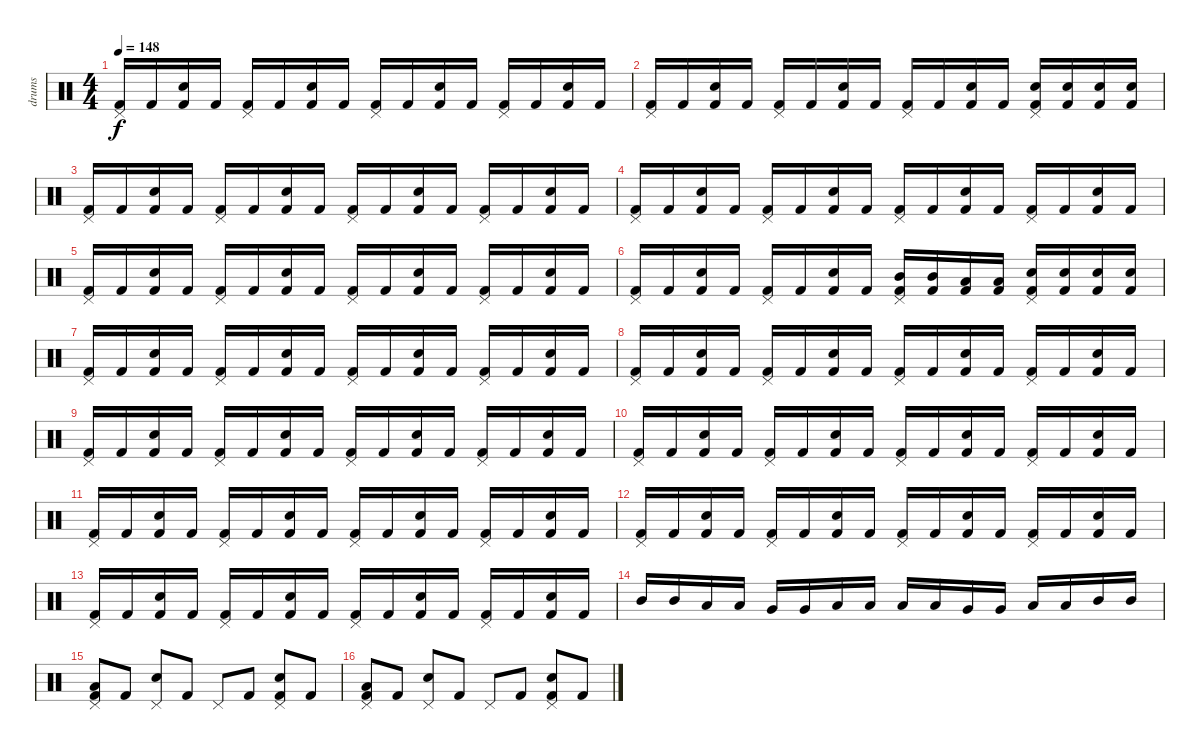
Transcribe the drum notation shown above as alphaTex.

\track ("drums" "drums") {instrument percussion}
\staff {score}
\articulation defaults
\ts (4 4)
\tempo 148
\clef neutral
\ks c
("Pedal Hi-Hat (hit)" "Kick (hit) 2").16{dy f} "Kick (hit) 2".16 ("Electric Snare (hit)" "Kick (hit) 2").16 "Kick (hit) 2".16 ("Pedal Hi-Hat (hit)" "Kick (hit) 2").16 "Kick (hit) 2".16 ("Electric Snare (hit)" "Kick (hit) 2").16 "Kick (hit) 2".16 ("Pedal Hi-Hat (hit)" "Kick (hit) 2").16 "Kick (hit) 2".16 ("Electric Snare (hit)" "Kick (hit) 2").16 "Kick (hit) 2".16 ("Pedal Hi-Hat (hit)" "Kick (hit) 2").16 "Kick (hit) 2".16 ("Electric Snare (hit)" "Kick (hit) 2").16 "Kick (hit) 2".16 |
("Pedal Hi-Hat (hit)" "Kick (hit) 2").16 "Kick (hit) 2".16 ("Electric Snare (hit)" "Kick (hit) 2").16 "Kick (hit) 2".16 ("Pedal Hi-Hat (hit)" "Kick (hit) 2").16 "Kick (hit) 2".16 ("Electric Snare (hit)" "Kick (hit) 2").16 "Kick (hit) 2".16 ("Pedal Hi-Hat (hit)" "Kick (hit) 2").16 "Kick (hit) 2".16 ("Electric Snare (hit)" "Kick (hit) 2").16 "Kick (hit) 2".16 ("Pedal Hi-Hat (hit)" "Electric Snare (hit)" "Kick (hit) 2").16 ("Electric Snare (hit)" "Kick (hit) 2").16 ("Electric Snare (hit)" "Kick (hit) 2").16 ("Electric Snare (hit)" "Kick (hit) 2").16 |
("Pedal Hi-Hat (hit)" "Kick (hit) 2").16 "Kick (hit) 2".16 ("Electric Snare (hit)" "Kick (hit) 2").16 "Kick (hit) 2".16 ("Pedal Hi-Hat (hit)" "Kick (hit) 2").16 "Kick (hit) 2".16 ("Electric Snare (hit)" "Kick (hit) 2").16 "Kick (hit) 2".16 ("Pedal Hi-Hat (hit)" "Kick (hit) 2").16 "Kick (hit) 2".16 ("Electric Snare (hit)" "Kick (hit) 2").16 "Kick (hit) 2".16 ("Pedal Hi-Hat (hit)" "Kick (hit) 2").16 "Kick (hit) 2".16 ("Electric Snare (hit)" "Kick (hit) 2").16 "Kick (hit) 2".16 |
("Pedal Hi-Hat (hit)" "Kick (hit) 2").16 "Kick (hit) 2".16 ("Electric Snare (hit)" "Kick (hit) 2").16 "Kick (hit) 2".16 ("Pedal Hi-Hat (hit)" "Kick (hit) 2").16 "Kick (hit) 2".16 ("Electric Snare (hit)" "Kick (hit) 2").16 "Kick (hit) 2".16 ("Pedal Hi-Hat (hit)" "Kick (hit) 2").16 "Kick (hit) 2".16 ("Electric Snare (hit)" "Kick (hit) 2").16 "Kick (hit) 2".16 ("Pedal Hi-Hat (hit)" "Kick (hit) 2").16 "Kick (hit) 2".16 ("Electric Snare (hit)" "Kick (hit) 2").16 "Kick (hit) 2".16 |
("Pedal Hi-Hat (hit)" "Kick (hit) 2").16 "Kick (hit) 2".16 ("Electric Snare (hit)" "Kick (hit) 2").16 "Kick (hit) 2".16 ("Pedal Hi-Hat (hit)" "Kick (hit) 2").16 "Kick (hit) 2".16 ("Electric Snare (hit)" "Kick (hit) 2").16 "Kick (hit) 2".16 ("Pedal Hi-Hat (hit)" "Kick (hit) 2").16 "Kick (hit) 2".16 ("Electric Snare (hit)" "Kick (hit) 2").16 "Kick (hit) 2".16 ("Pedal Hi-Hat (hit)" "Kick (hit) 2").16 "Kick (hit) 2".16 ("Electric Snare (hit)" "Kick (hit) 2").16 "Kick (hit) 2".16 |
("Pedal Hi-Hat (hit)" "Kick (hit) 2").16 "Kick (hit) 2".16 ("Electric Snare (hit)" "Kick (hit) 2").16 "Kick (hit) 2".16 ("Pedal Hi-Hat (hit)" "Kick (hit) 2").16 "Kick (hit) 2".16 ("Electric Snare (hit)" "Kick (hit) 2").16 "Kick (hit) 2".16 ("Pedal Hi-Hat (hit)" "Mid Tom (hit)" "Kick (hit) 2").16 ("Mid Tom (hit)" "Kick (hit) 2").16 ("Low Tom (hit)" "Kick (hit) 2").16 ("Low Tom (hit)" "Kick (hit) 2").16 ("Pedal Hi-Hat (hit)" "Electric Snare (hit)" "Kick (hit) 2").16 ("Electric Snare (hit)" "Kick (hit) 2").16 ("Electric Snare (hit)" "Kick (hit) 2").16 ("Electric Snare (hit)" "Kick (hit) 2").16 |
("Pedal Hi-Hat (hit)" "Kick (hit) 2").16 "Kick (hit) 2".16 ("Electric Snare (hit)" "Kick (hit) 2").16 "Kick (hit) 2".16 ("Pedal Hi-Hat (hit)" "Kick (hit) 2").16 "Kick (hit) 2".16 ("Electric Snare (hit)" "Kick (hit) 2").16 "Kick (hit) 2".16 ("Pedal Hi-Hat (hit)" "Kick (hit) 2").16 "Kick (hit) 2".16 ("Electric Snare (hit)" "Kick (hit) 2").16 "Kick (hit) 2".16 ("Pedal Hi-Hat (hit)" "Kick (hit) 2").16 "Kick (hit) 2".16 ("Electric Snare (hit)" "Kick (hit) 2").16 "Kick (hit) 2".16 |
("Pedal Hi-Hat (hit)" "Kick (hit) 2").16 "Kick (hit) 2".16 ("Electric Snare (hit)" "Kick (hit) 2").16 "Kick (hit) 2".16 ("Pedal Hi-Hat (hit)" "Kick (hit) 2").16 "Kick (hit) 2".16 ("Electric Snare (hit)" "Kick (hit) 2").16 "Kick (hit) 2".16 ("Pedal Hi-Hat (hit)" "Kick (hit) 2").16 "Kick (hit) 2".16 ("Electric Snare (hit)" "Kick (hit) 2").16 "Kick (hit) 2".16 ("Pedal Hi-Hat (hit)" "Kick (hit) 2").16 "Kick (hit) 2".16 ("Electric Snare (hit)" "Kick (hit) 2").16 "Kick (hit) 2".16 |
("Pedal Hi-Hat (hit)" "Kick (hit) 2").16 "Kick (hit) 2".16 ("Electric Snare (hit)" "Kick (hit) 2").16 "Kick (hit) 2".16 ("Pedal Hi-Hat (hit)" "Kick (hit) 2").16 "Kick (hit) 2".16 ("Electric Snare (hit)" "Kick (hit) 2").16 "Kick (hit) 2".16 ("Pedal Hi-Hat (hit)" "Kick (hit) 2").16 "Kick (hit) 2".16 ("Electric Snare (hit)" "Kick (hit) 2").16 "Kick (hit) 2".16 ("Pedal Hi-Hat (hit)" "Kick (hit) 2").16 "Kick (hit) 2".16 ("Electric Snare (hit)" "Kick (hit) 2").16 "Kick (hit) 2".16 |
("Pedal Hi-Hat (hit)" "Kick (hit) 2").16 "Kick (hit) 2".16 ("Electric Snare (hit)" "Kick (hit) 2").16 "Kick (hit) 2".16 ("Pedal Hi-Hat (hit)" "Kick (hit) 2").16 "Kick (hit) 2".16 ("Electric Snare (hit)" "Kick (hit) 2").16 "Kick (hit) 2".16 ("Pedal Hi-Hat (hit)" "Kick (hit) 2").16 "Kick (hit) 2".16 ("Electric Snare (hit)" "Kick (hit) 2").16 "Kick (hit) 2".16 ("Pedal Hi-Hat (hit)" "Kick (hit) 2").16 "Kick (hit) 2".16 ("Electric Snare (hit)" "Kick (hit) 2").16 "Kick (hit) 2".16 |
("Pedal Hi-Hat (hit)" "Kick (hit) 2").16 "Kick (hit) 2".16 ("Electric Snare (hit)" "Kick (hit) 2").16 "Kick (hit) 2".16 ("Pedal Hi-Hat (hit)" "Kick (hit) 2").16 "Kick (hit) 2".16 ("Electric Snare (hit)" "Kick (hit) 2").16 "Kick (hit) 2".16 ("Pedal Hi-Hat (hit)" "Kick (hit) 2").16 "Kick (hit) 2".16 ("Electric Snare (hit)" "Kick (hit) 2").16 "Kick (hit) 2".16 ("Pedal Hi-Hat (hit)" "Kick (hit) 2").16 "Kick (hit) 2".16 ("Electric Snare (hit)" "Kick (hit) 2").16 "Kick (hit) 2".16 |
("Pedal Hi-Hat (hit)" "Kick (hit) 2").16 "Kick (hit) 2".16 ("Electric Snare (hit)" "Kick (hit) 2").16 "Kick (hit) 2".16 ("Pedal Hi-Hat (hit)" "Kick (hit) 2").16 "Kick (hit) 2".16 ("Electric Snare (hit)" "Kick (hit) 2").16 "Kick (hit) 2".16 ("Pedal Hi-Hat (hit)" "Kick (hit) 2").16 "Kick (hit) 2".16 ("Electric Snare (hit)" "Kick (hit) 2").16 "Kick (hit) 2".16 ("Pedal Hi-Hat (hit)" "Kick (hit) 2").16 "Kick (hit) 2".16 ("Electric Snare (hit)" "Kick (hit) 2").16 "Kick (hit) 2".16 |
("Pedal Hi-Hat (hit)" "Kick (hit) 2").16 "Kick (hit) 2".16 ("Electric Snare (hit)" "Kick (hit) 2").16 "Kick (hit) 2".16 ("Pedal Hi-Hat (hit)" "Kick (hit) 2").16 "Kick (hit) 2".16 ("Electric Snare (hit)" "Kick (hit) 2").16 "Kick (hit) 2".16 ("Pedal Hi-Hat (hit)" "Kick (hit) 2").16 "Kick (hit) 2".16 ("Electric Snare (hit)" "Kick (hit) 2").16 "Kick (hit) 2".16 ("Pedal Hi-Hat (hit)" "Kick (hit) 2").16 "Kick (hit) 2".16 ("Electric Snare (hit)" "Kick (hit) 2").16 "Kick (hit) 2".16 |
"Mid Tom (hit)".16 "Mid Tom (hit)".16 "Low Tom (hit)".16 "Low Tom (hit)".16 "Very Low Tom (hit)".16 "Very Low Tom (hit)".16 "Low Floor Tom (hit)".16 "Low Floor Tom (hit)".16 "Low Floor Tom (hit)".16 "Low Floor Tom (hit)".16 "Very Low Tom (hit)".16 "Very Low Tom (hit)".16 "Low Tom (hit)".16 "Low Tom (hit)".16 "Mid Tom (hit)".16 "Mid Tom (hit)".16 |
("Pedal Hi-Hat (hit)" "Low Floor Tom (hit)" "Kick (hit) 2").8 "Kick (hit) 2".8 ("Pedal Hi-Hat (hit)" "Snare (hit) 2").8 "Kick (hit) 2".8 "Pedal Hi-Hat (hit)".8 "Kick (hit) 2".8 ("Pedal Hi-Hat (hit)" "Snare (hit) 2" "Kick (hit) 2").8 "Kick (hit) 2".8 |
("Pedal Hi-Hat (hit)" "Low Floor Tom (hit)" "Kick (hit) 2").8 "Kick (hit) 2".8 ("Pedal Hi-Hat (hit)" "Snare (hit) 2").8 "Kick (hit) 2".8 "Pedal Hi-Hat (hit)".8 "Kick (hit) 2".8 ("Pedal Hi-Hat (hit)" "Snare (hit) 2" "Kick (hit) 2").8 "Kick (hit) 2".8
